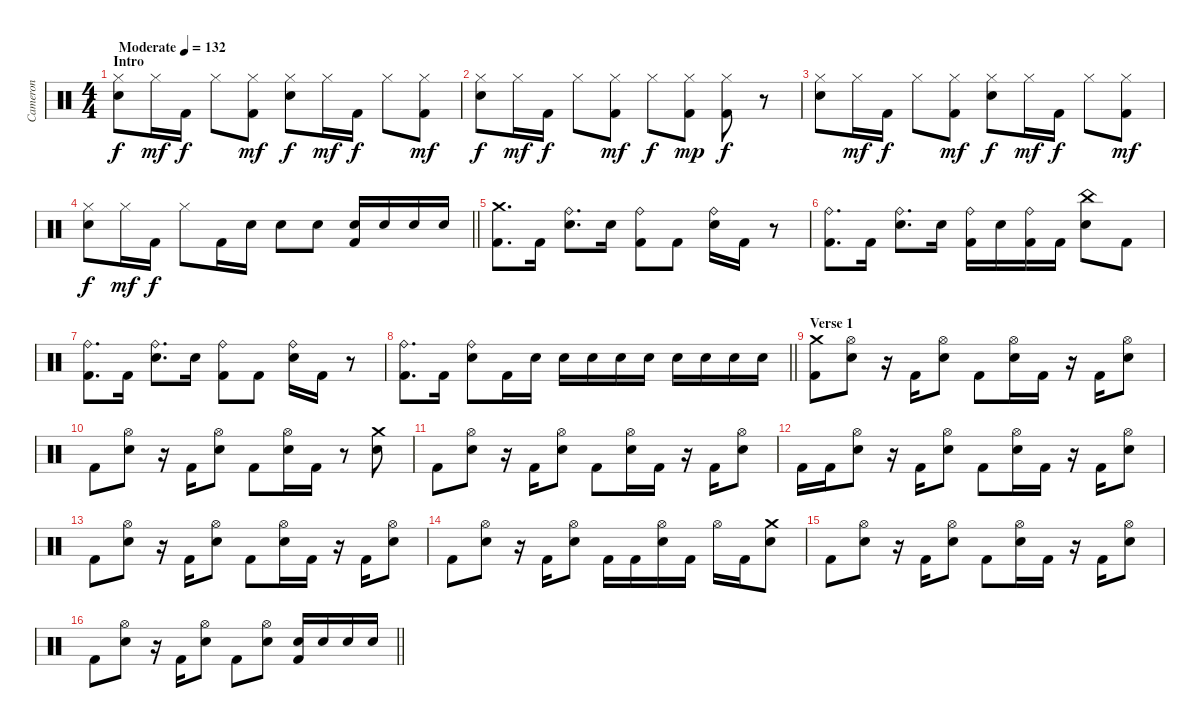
\track ("Cameron" "Cameron") {instrument percussion}
\staff {score}
\articulation defaults
\ts (4 4)
\section ("" "Intro")
\tempo (132 "Moderate")
\clef neutral
\ks c
("Hi-Hat (closed)" "Snare (hit) 2").8{dy f} "Hi-Hat (closed)".16{dy mf} "Kick (hit) 2".16{dy f} "Hi-Hat (closed)".8 ("Hi-Hat (closed)" "Kick (hit) 2").8{dy mf} ("Hi-Hat (closed)" "Snare (hit) 2").8{dy f} "Hi-Hat (closed)".16{dy mf} "Kick (hit) 2".16{dy f} "Hi-Hat (closed)".8 ("Hi-Hat (closed)" "Kick (hit) 2").8{dy mf} |
("Hi-Hat (closed)" "Snare (hit) 2").8{dy f} "Hi-Hat (closed)".16{dy mf} "Kick (hit) 2".16{dy f} "Hi-Hat (closed)".8 ("Hi-Hat (closed)" "Kick (hit) 2").8{dy mf} "Hi-Hat (closed)".8{dy f} ("Hi-Hat (closed)" "Kick (hit) 2").8{dy mp} ("Hi-Hat (closed)" "Kick (hit) 2").8{dy f} r.8 |
("Hi-Hat (closed)" "Snare (hit) 2").8 "Hi-Hat (closed)".16{dy mf} "Kick (hit) 2".16{dy f} "Hi-Hat (closed)".8 ("Hi-Hat (closed)" "Kick (hit) 2").8{dy mf} ("Hi-Hat (closed)" "Snare (hit) 2").8{dy f} "Hi-Hat (closed)".16{dy mf} "Kick (hit) 2".16{dy f} "Hi-Hat (closed)".8 ("Hi-Hat (closed)" "Kick (hit) 2").8{dy mf} |
\barLineRight lightlight
("Hi-Hat (closed)" "Snare (hit) 2").8{dy f} "Hi-Hat (closed)".16{dy mf} "Kick (hit) 2".16{dy f} "Hi-Hat (closed)".8 "Kick (hit) 2".16 "Snare (hit) 2".16 "Snare (hit) 2".8 "Snare (hit) 2".8 ("Snare (hit) 2" "Kick (hit) 2").16 "Snare (hit) 2".16 "Snare (hit) 2".16 "Snare (hit) 2".16 |
\section ("" "")
("Crash medium (hit)" "Kick (hit) 2").8{d} "Kick (hit) 2".16 ("Ride (bell)" "Snare (hit) 2").8{d} "Snare (hit) 2".16 ("Ride (bell)" "Kick (hit) 2").8 "Kick (hit) 2".8 ("Ride (bell)" "Snare (hit) 2").16 "Kick (hit) 2".16 r.8 |
("Ride (bell)" "Kick (hit) 2").8{d} "Kick (hit) 2".16 ("Ride (bell)" "Snare (hit) 2").8{d} "Snare (hit) 2".16 ("Ride (bell)" "Kick (hit) 2").16 "Snare (hit) 2".16 ("Ride (bell)" "Kick (hit) 2").16 "Kick (hit) 2".16 ("China (hit)" "Snare (hit) 2").8 "Kick (hit) 2".8 |
("Ride (bell)" "Kick (hit) 2").8{d} "Kick (hit) 2".16 ("Ride (bell)" "Snare (hit) 2").8{d} "Snare (hit) 2".16 ("Ride (bell)" "Kick (hit) 2").8 "Kick (hit) 2".8 ("Ride (bell)" "Snare (hit) 2").16 "Kick (hit) 2".16 r.8 |
\barLineRight lightlight
("Ride (bell)" "Kick (hit) 2").8{d} "Kick (hit) 2".16 ("Ride (bell)" "Snare (hit) 2").8 "Kick (hit) 2".16 "Snare (hit) 2".16 "Snare (hit) 2".16 "Snare (hit) 2".16 "Snare (hit) 2".16 "Snare (hit) 2".16 "Snare (hit) 2".16 "Snare (hit) 2".16 "Snare (hit) 2".16 "Snare (hit) 2".16 |
\section ("" "Verse 1")
("Crash medium (hit)" "Kick (hit) 2").8 ("Hi-Hat (open)" "Snare (hit) 2").8 r.16 "Kick (hit) 2".16 ("Hi-Hat (open)" "Snare (hit) 2").8 "Kick (hit) 2".8 ("Hi-Hat (open)" "Snare (hit) 2").16 "Kick (hit) 2".16 r.16 "Kick (hit) 2".16 ("Hi-Hat (open)" "Snare (hit) 2").8 |
"Kick (hit) 2".8 ("Hi-Hat (open)" "Snare (hit) 2").8 r.16 "Kick (hit) 2".16 ("Hi-Hat (open)" "Snare (hit) 2").8 "Kick (hit) 2".8 ("Hi-Hat (open)" "Snare (hit) 2").16 "Kick (hit) 2".16 r.8 ("Crash medium (hit)" "Snare (hit) 2").8 |
"Kick (hit) 2".8 ("Hi-Hat (open)" "Snare (hit) 2").8 r.16 "Kick (hit) 2".16 ("Hi-Hat (open)" "Snare (hit) 2").8 "Kick (hit) 2".8 ("Hi-Hat (open)" "Snare (hit) 2").16 "Kick (hit) 2".16 r.16 "Kick (hit) 2".16 ("Hi-Hat (open)" "Snare (hit) 2").8 |
"Kick (hit) 2".16 "Kick (hit) 2".16 ("Hi-Hat (open)" "Snare (hit) 2").8 r.16 "Kick (hit) 2".16 ("Hi-Hat (open)" "Snare (hit) 2").8 "Kick (hit) 2".8 ("Hi-Hat (open)" "Snare (hit) 2").16 "Kick (hit) 2".16 r.16 "Kick (hit) 2".16 ("Hi-Hat (open)" "Snare (hit) 2").8 |
"Kick (hit) 2".8 ("Hi-Hat (open)" "Snare (hit) 2").8 r.16 "Kick (hit) 2".16 ("Hi-Hat (open)" "Snare (hit) 2").8 "Kick (hit) 2".8 ("Hi-Hat (open)" "Snare (hit) 2").16 "Kick (hit) 2".16 r.16 "Kick (hit) 2".16 ("Hi-Hat (open)" "Snare (hit) 2").8 |
"Kick (hit) 2".8 ("Hi-Hat (open)" "Snare (hit) 2").8 r.16 "Kick (hit) 2".16 ("Hi-Hat (open)" "Snare (hit) 2").8 "Kick (hit) 2".16 "Kick (hit) 2".16 ("Hi-Hat (open)" "Snare (hit) 2").16 "Kick (hit) 2".16 "Hi-Hat (open)".16 "Kick (hit) 2".16 ("Crash medium (hit)" "Snare (hit) 2").8 |
"Kick (hit) 2".8 ("Hi-Hat (open)" "Snare (hit) 2").8 r.16 "Kick (hit) 2".16 ("Hi-Hat (open)" "Snare (hit) 2").8 "Kick (hit) 2".8 ("Hi-Hat (open)" "Snare (hit) 2").16 "Kick (hit) 2".16 r.16 "Kick (hit) 2".16 ("Hi-Hat (open)" "Snare (hit) 2").8 |
\barLineRight lightlight "Kick (hit) 2".8
("Hi-Hat (open)" "Snare (hit) 2").8 r.16 "Kick (hit) 2".16 ("Hi-Hat (open)" "Snare (hit) 2").8 "Kick (hit) 2".8 ("Hi-Hat (open)" "Snare (hit) 2").8 ("Snare (hit) 2" "Kick (hit) 2").16 "Snare (hit) 2".16 "Snare (hit) 2".16 "Snare (hit) 2".16
